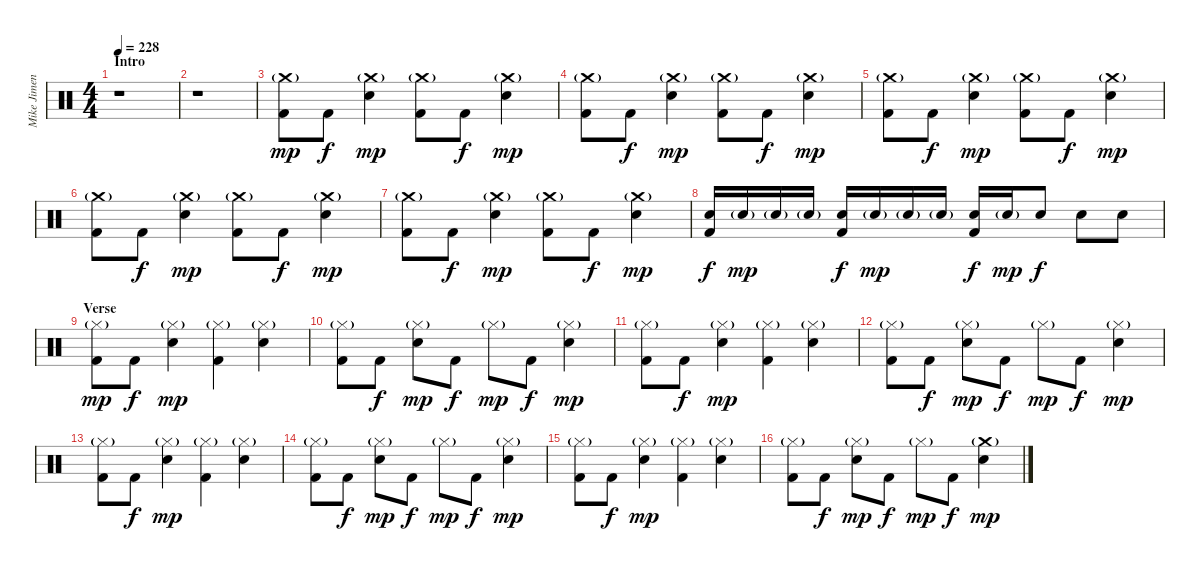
\track ("Mike Jimenez" "Mike Jimen") {instrument percussion}
\staff {score}
\articulation defaults
\ts (4 4)
\section ("" "Intro")
\tempo 228
\clef neutral
\ks c
r.1{dy mp} |
r.1 |
("Crash medium (hit)"{g} "Kick (hit) 2").8 "Kick (hit) 2".8{dy f} ("Crash medium (hit)"{g} "Electric Snare (hit)").4{dy mp} ("Crash medium (hit)"{g} "Kick (hit) 2").8 "Kick (hit) 2".8{dy f} ("Crash medium (hit)"{g} "Electric Snare (hit)").4{dy mp} |
("Crash medium (hit)"{g} "Kick (hit) 2").8 "Kick (hit) 2".8{dy f} ("Crash medium (hit)"{g} "Electric Snare (hit)").4{dy mp} ("Crash medium (hit)"{g} "Kick (hit) 2").8 "Kick (hit) 2".8{dy f} ("Crash medium (hit)"{g} "Electric Snare (hit)").4{dy mp} |
("Crash medium (hit)"{g} "Kick (hit) 2").8 "Kick (hit) 2".8{dy f} ("Crash medium (hit)"{g} "Electric Snare (hit)").4{dy mp} ("Crash medium (hit)"{g} "Kick (hit) 2").8 "Kick (hit) 2".8{dy f} ("Crash medium (hit)"{g} "Electric Snare (hit)").4{dy mp} |
("Crash medium (hit)"{g} "Kick (hit) 2").8 "Kick (hit) 2".8{dy f} ("Crash medium (hit)"{g} "Electric Snare (hit)").4{dy mp} ("Crash medium (hit)"{g} "Kick (hit) 2").8 "Kick (hit) 2".8{dy f} ("Crash medium (hit)"{g} "Electric Snare (hit)").4{dy mp} |
("Crash medium (hit)"{g} "Kick (hit) 2").8 "Kick (hit) 2".8{dy f} ("Crash medium (hit)"{g} "Electric Snare (hit)").4{dy mp} ("Crash medium (hit)"{g} "Kick (hit) 2").8 "Kick (hit) 2".8{dy f} ("Crash medium (hit)"{g} "Electric Snare (hit)").4{dy mp} |
("Electric Snare (hit)" "Kick (hit) 2").16{dy f} "Electric Snare (hit)"{g}.16{dy mp} "Electric Snare (hit)"{g}.16 "Electric Snare (hit)"{g}.16 ("Electric Snare (hit)" "Kick (hit) 2").16{dy f} "Electric Snare (hit)"{g}.16{dy mp} "Electric Snare (hit)"{g}.16 "Electric Snare (hit)"{g}.16 ("Electric Snare (hit)" "Kick (hit) 2").16{dy f} "Electric Snare (hit)"{g}.16{dy mp} "Electric Snare (hit)".8{dy f} "Electric Snare (hit)".8 "Electric Snare (hit)".8 |
\section ("" "Verse")
("Hi-Hat (closed)"{g} "Kick (hit) 2").8{dy mp} "Kick (hit) 2".8{dy f} ("Hi-Hat (closed)"{g} "Electric Snare (hit)").4{dy mp} ("Hi-Hat (closed)"{g} "Kick (hit) 2").4 ("Hi-Hat (closed)"{g} "Electric Snare (hit)").4 |
("Hi-Hat (closed)"{g} "Kick (hit) 2").8 "Kick (hit) 2".8{dy f} ("Hi-Hat (closed)"{g} "Electric Snare (hit)").8{dy mp} "Kick (hit) 2".8{dy f} "Hi-Hat (closed)"{g}.8{dy mp} "Kick (hit) 2".8{dy f} ("Hi-Hat (closed)"{g} "Electric Snare (hit)").4{dy mp} |
("Hi-Hat (closed)"{g} "Kick (hit) 2").8 "Kick (hit) 2".8{dy f} ("Hi-Hat (closed)"{g} "Electric Snare (hit)").4{dy mp} ("Hi-Hat (closed)"{g} "Kick (hit) 2").4 ("Hi-Hat (closed)"{g} "Electric Snare (hit)").4 |
("Hi-Hat (closed)"{g} "Kick (hit) 2").8 "Kick (hit) 2".8{dy f} ("Hi-Hat (closed)"{g} "Electric Snare (hit)").8{dy mp} "Kick (hit) 2".8{dy f} "Hi-Hat (closed)"{g}.8{dy mp} "Kick (hit) 2".8{dy f} ("Hi-Hat (closed)"{g} "Electric Snare (hit)").4{dy mp} |
("Hi-Hat (closed)"{g} "Kick (hit) 2").8 "Kick (hit) 2".8{dy f} ("Hi-Hat (closed)"{g} "Electric Snare (hit)").4{dy mp} ("Hi-Hat (closed)"{g} "Kick (hit) 2").4 ("Hi-Hat (closed)"{g} "Electric Snare (hit)").4 |
("Hi-Hat (closed)"{g} "Kick (hit) 2").8 "Kick (hit) 2".8{dy f} ("Hi-Hat (closed)"{g} "Electric Snare (hit)").8{dy mp} "Kick (hit) 2".8{dy f} "Hi-Hat (closed)"{g}.8{dy mp} "Kick (hit) 2".8{dy f} ("Hi-Hat (closed)"{g} "Electric Snare (hit)").4{dy mp} |
("Hi-Hat (closed)"{g} "Kick (hit) 2").8 "Kick (hit) 2".8{dy f} ("Hi-Hat (closed)"{g} "Electric Snare (hit)").4{dy mp} ("Hi-Hat (closed)"{g} "Kick (hit) 2").4 ("Hi-Hat (closed)"{g} "Electric Snare (hit)").4 |
("Hi-Hat (closed)"{g} "Kick (hit) 2").8 "Kick (hit) 2".8{dy f} ("Hi-Hat (closed)"{g} "Electric Snare (hit)").8{dy mp} "Kick (hit) 2".8{dy f} "Hi-Hat (closed)"{g}.8{dy mp} "Kick (hit) 2".8{dy f} ("Crash medium (hit)"{g} "Electric Snare (hit)").4{dy mp}
